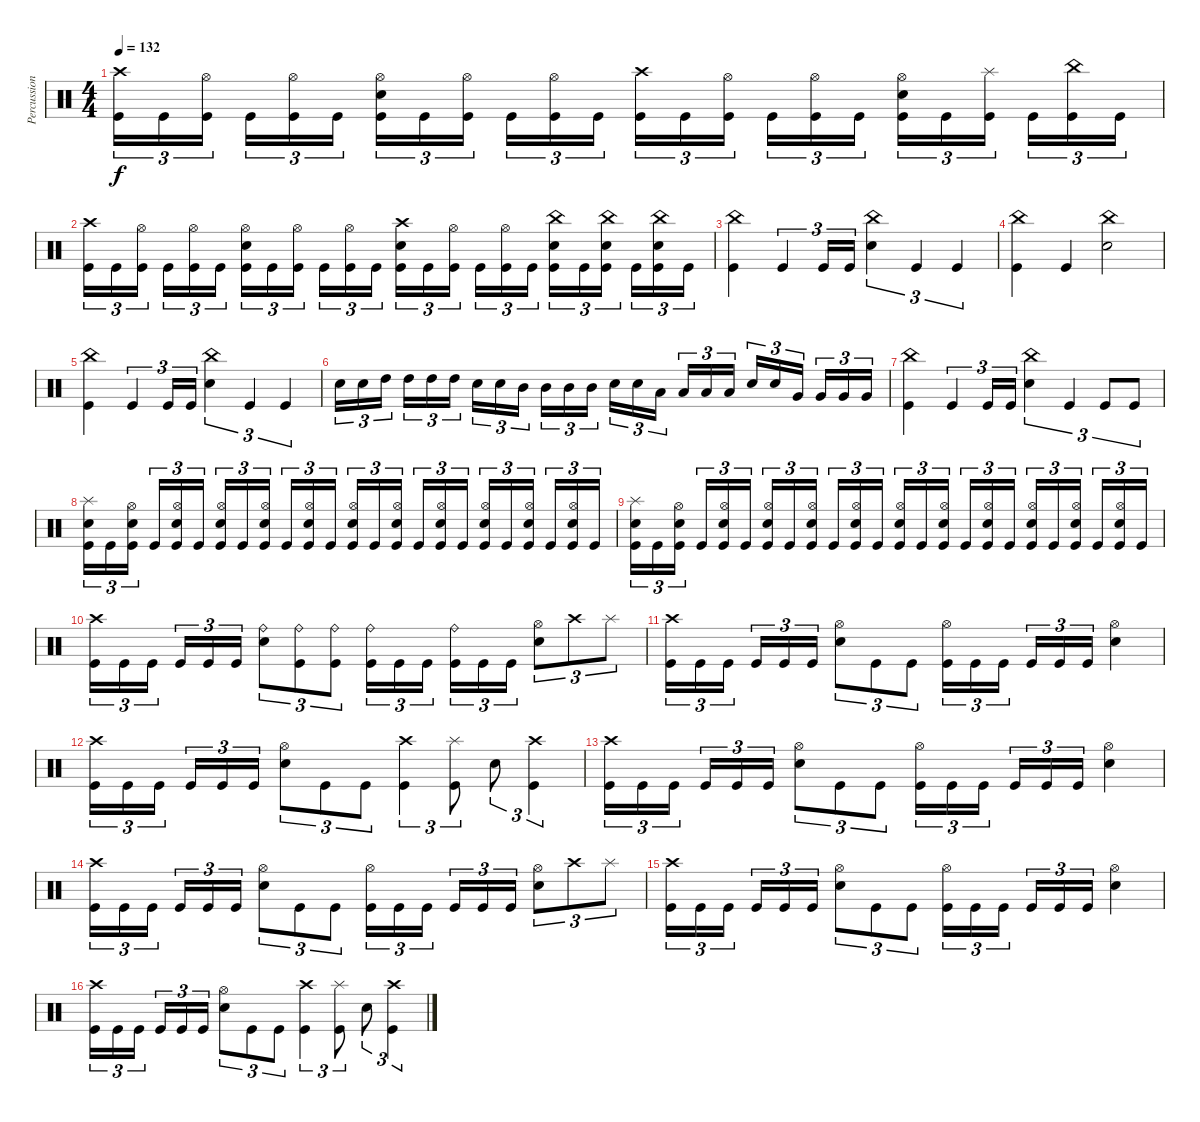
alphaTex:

\track ("Percussion" "Percussion") {instrument percussion}
\staff {score}
\articulation defaults
\ts (4 4)
\tempo 132
\clef neutral
\ks c
("Kick (hit)" "Crash high (hit)").16{tu (3 2) dy f} "Kick (hit)".16{tu (3 2)} ("Kick (hit)" "Hi-Hat (open)").16{tu (3 2) beam splitsecondary} "Kick (hit)".16{tu (3 2)} ("Kick (hit)" "Hi-Hat (open)").16{tu (3 2)} "Kick (hit)".16{tu (3 2)} ("Electric Snare (hit)" "Kick (hit)" "Hi-Hat (open)").16{tu (3 2)} "Kick (hit)".16{tu (3 2)} ("Hi-Hat (open)" "Kick (hit)").16{tu (3 2) beam splitsecondary} "Kick (hit)".16{tu (3 2)} ("Kick (hit)" "Hi-Hat (open)").16{tu (3 2)} "Kick (hit)".16{tu (3 2)} ("Crash high (hit)" "Kick (hit)").16{tu (3 2)} "Kick (hit)".16{tu (3 2)} ("Kick (hit)" "Hi-Hat (open)").16{tu (3 2) beam splitsecondary} "Kick (hit)".16{tu (3 2)} ("Kick (hit)" "Hi-Hat (open)").16{tu (3 2)} "Kick (hit)".16{tu (3 2)} ("Electric Snare (hit)" "Kick (hit)" "Hi-Hat (open)").16{tu (3 2)} "Kick (hit)".16{tu (3 2)} ("Kick (hit)" "Splash (hit)").16{tu (3 2) beam splitsecondary} "Kick (hit)".16{tu (3 2)} ("Kick (hit)" "China (hit)").16{tu (3 2)} "Kick (hit)".16{tu (3 2)} |
("Kick (hit)" "Crash high (hit)").16{tu (3 2)} "Kick (hit)".16{tu (3 2)} ("Kick (hit)" "Hi-Hat (open)").16{tu (3 2) beam splitsecondary} "Kick (hit)".16{tu (3 2)} ("Kick (hit)" "Hi-Hat (open)").16{tu (3 2)} "Kick (hit)".16{tu (3 2)} ("Electric Snare (hit)" "Kick (hit)" "Hi-Hat (open)").16{tu (3 2)} "Kick (hit)".16{tu (3 2)} ("Hi-Hat (open)" "Kick (hit)").16{tu (3 2) beam splitsecondary} "Kick (hit)".16{tu (3 2)} ("Kick (hit)" "Hi-Hat (open)").16{tu (3 2)} "Kick (hit)".16{tu (3 2)} ("Electric Snare (hit)" "Crash high (hit)" "Kick (hit)").16{tu (3 2)} "Kick (hit)".16{tu (3 2)} ("Kick (hit)" "Hi-Hat (open)").16{tu (3 2) beam splitsecondary} "Kick (hit)".16{tu (3 2)} ("Kick (hit)" "Hi-Hat (open)").16{tu (3 2)} "Kick (hit)".16{tu (3 2)} ("Electric Snare (hit)" "Kick (hit)" "China (hit)").16{tu (3 2)} "Kick (hit)".16{tu (3 2)} ("Electric Snare (hit)" "Kick (hit)" "China (hit)").16{tu (3 2) beam splitsecondary} "Kick (hit)".16{tu (3 2)} ("Electric Snare (hit)" "Kick (hit)" "China (hit)").16{tu (3 2)} "Kick (hit)".16{tu (3 2)} |
("China (hit)" "Kick (hit)").4 "Kick (hit)".4{tu (3 2)} "Kick (hit)".16{tu (3 2)} "Kick (hit)".16{tu (3 2)} ("China (hit)" "Electric Snare (hit)").4{tu (3 2)} "Kick (hit)".4{tu (3 2)} "Kick (hit)".4{tu (3 2)} |
("Kick (hit)" "China (hit)").4 "Kick (hit)".4 ("Electric Snare (hit)" "China (hit)").2 |
("China (hit)" "Kick (hit)").4 "Kick (hit)".4{tu (3 2)} "Kick (hit)".16{tu (3 2)} "Kick (hit)".16{tu (3 2)} ("China (hit)" "Electric Snare (hit)").4{tu (3 2)} "Kick (hit)".4{tu (3 2)} "Kick (hit)".4{tu (3 2)} |
"Electric Snare (hit)".16{tu (3 2)} "Electric Snare (hit)".16{tu (3 2)} "High Tom (hit)".16{tu (3 2) beam splitsecondary} "High Tom (hit)".16{tu (3 2)} "High Tom (hit)".16{tu (3 2)} "High Tom (hit)".16{tu (3 2)} "Electric Snare (hit)".16{tu (3 2)} "Electric Snare (hit)".16{tu (3 2)} "Mid Tom (hit)".16{tu (3 2) beam splitsecondary} "Mid Tom (hit)".16{tu (3 2)} "Mid Tom (hit)".16{tu (3 2)} "Mid Tom (hit)".16{tu (3 2)} "Electric Snare (hit)".16{tu (3 2)} "Electric Snare (hit)".16{tu (3 2)} "Low Tom (hit)".16{tu (3 2) beam splitsecondary} "Low Tom (hit)".16{tu (3 2)} "Low Tom (hit)".16{tu (3 2)} "Low Tom (hit)".16{tu (3 2)} "Electric Snare (hit)".16{tu (3 2)} "Electric Snare (hit)".16{tu (3 2)} "Very Low Tom (hit)".16{tu (3 2) beam splitsecondary} "Very Low Tom (hit)".16{tu (3 2)} "Very Low Tom (hit)".16{tu (3 2)} "Very Low Tom (hit)".16{tu (3 2)} |
("China (hit)" "Kick (hit)").4 "Kick (hit)".4{tu (3 2)} "Kick (hit)".16{tu (3 2)} "Kick (hit)".16{tu (3 2)} ("China (hit)" "Electric Snare (hit)").4{tu (3 2)} "Kick (hit)".4{tu (3 2)} "Kick (hit)".8{tu (3 2)} "Kick (hit)".8{tu (3 2)} |
("Electric Snare (hit)" "Kick (hit)" "Splash (hit)").16{tu (3 2)} "Kick (hit)".16{tu (3 2)} ("Electric Snare (hit)" "Kick (hit)" "Hi-Hat (open)").16{tu (3 2) beam splitsecondary} "Kick (hit)".16{tu (3 2)} ("Electric Snare (hit)" "Kick (hit)" "Hi-Hat (open)").16{tu (3 2)} "Kick (hit)".16{tu (3 2)} ("Electric Snare (hit)" "Kick (hit)" "Hi-Hat (open)").16{tu (3 2)} "Kick (hit)".16{tu (3 2)} ("Electric Snare (hit)" "Kick (hit)" "Hi-Hat (open)").16{tu (3 2) beam splitsecondary} "Kick (hit)".16{tu (3 2)} ("Electric Snare (hit)" "Kick (hit)" "Hi-Hat (open)").16{tu (3 2)} "Kick (hit)".16{tu (3 2)} ("Electric Snare (hit)" "Kick (hit)" "Hi-Hat (open)").16{tu (3 2)} "Kick (hit)".16{tu (3 2)} ("Electric Snare (hit)" "Kick (hit)" "Hi-Hat (open)").16{tu (3 2) beam splitsecondary} "Kick (hit)".16{tu (3 2)} ("Electric Snare (hit)" "Kick (hit)" "Hi-Hat (open)").16{tu (3 2)} "Kick (hit)".16{tu (3 2)} ("Electric Snare (hit)" "Kick (hit)" "Hi-Hat (open)").16{tu (3 2)} "Kick (hit)".16{tu (3 2)} ("Electric Snare (hit)" "Kick (hit)" "Hi-Hat (open)").16{tu (3 2) beam splitsecondary} "Kick (hit)".16{tu (3 2)} ("Electric Snare (hit)" "Kick (hit)" "Hi-Hat (open)").16{tu (3 2)} "Kick (hit)".16{tu (3 2)} |
("Electric Snare (hit)" "Kick (hit)" "Splash (hit)").16{tu (3 2)} "Kick (hit)".16{tu (3 2)} ("Electric Snare (hit)" "Kick (hit)" "Hi-Hat (open)").16{tu (3 2) beam splitsecondary} "Kick (hit)".16{tu (3 2)} ("Electric Snare (hit)" "Kick (hit)" "Hi-Hat (open)").16{tu (3 2)} "Kick (hit)".16{tu (3 2)} ("Electric Snare (hit)" "Kick (hit)" "Hi-Hat (open)").16{tu (3 2)} "Kick (hit)".16{tu (3 2)} ("Electric Snare (hit)" "Kick (hit)" "Hi-Hat (open)").16{tu (3 2) beam splitsecondary} "Kick (hit)".16{tu (3 2)} ("Electric Snare (hit)" "Kick (hit)" "Hi-Hat (open)").16{tu (3 2)} "Kick (hit)".16{tu (3 2)} ("Electric Snare (hit)" "Kick (hit)" "Hi-Hat (open)").16{tu (3 2)} "Kick (hit)".16{tu (3 2)} ("Electric Snare (hit)" "Kick (hit)" "Hi-Hat (open)").16{tu (3 2) beam splitsecondary} "Kick (hit)".16{tu (3 2)} ("Electric Snare (hit)" "Kick (hit)" "Hi-Hat (open)").16{tu (3 2)} "Kick (hit)".16{tu (3 2)} ("Electric Snare (hit)" "Kick (hit)" "Hi-Hat (open)").16{tu (3 2)} "Kick (hit)".16{tu (3 2)} ("Electric Snare (hit)" "Kick (hit)" "Hi-Hat (open)").16{tu (3 2) beam splitsecondary} "Kick (hit)".16{tu (3 2)} ("Electric Snare (hit)" "Kick (hit)" "Hi-Hat (open)").16{tu (3 2)} "Kick (hit)".16{tu (3 2)} |
("Kick (hit)" "Crash high (hit)").16{tu (3 2)} "Kick (hit)".16{tu (3 2)} "Kick (hit)".16{tu (3 2) beam splitsecondary} "Kick (hit)".16{tu (3 2)} "Kick (hit)".16{tu (3 2)} "Kick (hit)".16{tu (3 2)} ("Electric Snare (hit)" "Ride (bell)").8{tu (3 2)} ("Kick (hit)" "Ride (bell)").8{tu (3 2)} ("Kick (hit)" "Ride (bell)").8{tu (3 2)} ("Kick (hit)" "Ride (bell)").16{tu (3 2)} "Kick (hit)".16{tu (3 2)} "Kick (hit)".16{tu (3 2) beam splitsecondary} ("Kick (hit)" "Ride (bell)").16{tu (3 2)} "Kick (hit)".16{tu (3 2)} "Kick (hit)".16{tu (3 2)} ("Electric Snare (hit)" "Hi-Hat (open)").8{tu (3 2)} "Crash high (hit)".8{tu (3 2)} "Splash (hit)".8{tu (3 2)} |
("Kick (hit)" "Crash high (hit)").16{tu (3 2)} "Kick (hit)".16{tu (3 2)} "Kick (hit)".16{tu (3 2) beam splitsecondary} "Kick (hit)".16{tu (3 2)} "Kick (hit)".16{tu (3 2)} "Kick (hit)".16{tu (3 2)} ("Electric Snare (hit)" "Hi-Hat (open)").8{tu (3 2)} "Kick (hit)".8{tu (3 2)} "Kick (hit)".8{tu (3 2)} ("Kick (hit)" "Hi-Hat (open)").16{tu (3 2)} "Kick (hit)".16{tu (3 2)} "Kick (hit)".16{tu (3 2) beam splitsecondary} "Kick (hit)".16{tu (3 2)} "Kick (hit)".16{tu (3 2)} "Kick (hit)".16{tu (3 2)} ("Electric Snare (hit)" "Hi-Hat (open)").4 |
("Kick (hit)" "Crash high (hit)").16{tu (3 2)} "Kick (hit)".16{tu (3 2)} "Kick (hit)".16{tu (3 2) beam splitsecondary} "Kick (hit)".16{tu (3 2)} "Kick (hit)".16{tu (3 2)} "Kick (hit)".16{tu (3 2)} ("Electric Snare (hit)" "Hi-Hat (open)").8{tu (3 2)} "Kick (hit)".8{tu (3 2)} "Kick (hit)".8{tu (3 2)} ("Kick (hit)" "Crash high (hit)").4{tu (3 2)} ("Kick (hit)" "Splash (hit)").8{tu (3 2)} "Electric Snare (hit)".8{tu (3 2)} ("Kick (hit)" "Crash high (hit)").4{tu (3 2)} |
("Kick (hit)" "Crash high (hit)").16{tu (3 2)} "Kick (hit)".16{tu (3 2)} "Kick (hit)".16{tu (3 2) beam splitsecondary} "Kick (hit)".16{tu (3 2)} "Kick (hit)".16{tu (3 2)} "Kick (hit)".16{tu (3 2)} ("Electric Snare (hit)" "Hi-Hat (open)").8{tu (3 2)} "Kick (hit)".8{tu (3 2)} "Kick (hit)".8{tu (3 2)} ("Kick (hit)" "Hi-Hat (open)").16{tu (3 2)} "Kick (hit)".16{tu (3 2)} "Kick (hit)".16{tu (3 2) beam splitsecondary} "Kick (hit)".16{tu (3 2)} "Kick (hit)".16{tu (3 2)} "Kick (hit)".16{tu (3 2)} ("Electric Snare (hit)" "Hi-Hat (open)").4 |
("Kick (hit)" "Crash high (hit)").16{tu (3 2)} "Kick (hit)".16{tu (3 2)} "Kick (hit)".16{tu (3 2) beam splitsecondary} "Kick (hit)".16{tu (3 2)} "Kick (hit)".16{tu (3 2)} "Kick (hit)".16{tu (3 2)} ("Electric Snare (hit)" "Hi-Hat (open)").8{tu (3 2)} "Kick (hit)".8{tu (3 2)} "Kick (hit)".8{tu (3 2)} ("Kick (hit)" "Hi-Hat (open)").16{tu (3 2)} "Kick (hit)".16{tu (3 2)} "Kick (hit)".16{tu (3 2) beam splitsecondary} "Kick (hit)".16{tu (3 2)} "Kick (hit)".16{tu (3 2)} "Kick (hit)".16{tu (3 2)} ("Electric Snare (hit)" "Hi-Hat (open)").8{tu (3 2)} "Crash high (hit)".8{tu (3 2)} "Splash (hit)".8{tu (3 2)} |
("Kick (hit)" "Crash high (hit)").16{tu (3 2)} "Kick (hit)".16{tu (3 2)} "Kick (hit)".16{tu (3 2) beam splitsecondary} "Kick (hit)".16{tu (3 2)} "Kick (hit)".16{tu (3 2)} "Kick (hit)".16{tu (3 2)} ("Electric Snare (hit)" "Hi-Hat (open)").8{tu (3 2)} "Kick (hit)".8{tu (3 2)} "Kick (hit)".8{tu (3 2)} ("Kick (hit)" "Hi-Hat (open)").16{tu (3 2)} "Kick (hit)".16{tu (3 2)} "Kick (hit)".16{tu (3 2) beam splitsecondary} "Kick (hit)".16{tu (3 2)} "Kick (hit)".16{tu (3 2)} "Kick (hit)".16{tu (3 2)} ("Electric Snare (hit)" "Hi-Hat (open)").4 |
("Kick (hit)" "Crash high (hit)").16{tu (3 2)} "Kick (hit)".16{tu (3 2)} "Kick (hit)".16{tu (3 2) beam splitsecondary} "Kick (hit)".16{tu (3 2)} "Kick (hit)".16{tu (3 2)} "Kick (hit)".16{tu (3 2)} ("Electric Snare (hit)" "Hi-Hat (open)").8{tu (3 2)} "Kick (hit)".8{tu (3 2)} "Kick (hit)".8{tu (3 2)} ("Kick (hit)" "Crash high (hit)").4{tu (3 2)} ("Kick (hit)" "Splash (hit)").8{tu (3 2)} "Electric Snare (hit)".8{tu (3 2)} ("Kick (hit)" "Crash high (hit)").4{tu (3 2)}
